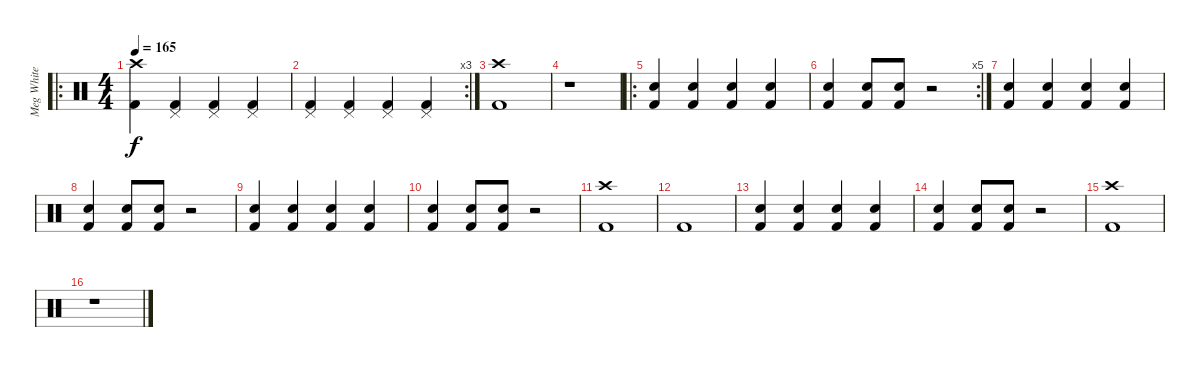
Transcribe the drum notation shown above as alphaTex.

\track ("Meg White" "Meg White") {instrument percussion}
\staff {score}
\articulation defaults
\ro
\ts (4 4)
\tempo 165
\clef neutral
\ks c
("Crash high (hit)" "Kick (hit) 2").4{dy f} ("Pedal Hi-Hat (hit)" "Kick (hit) 2").4 ("Pedal Hi-Hat (hit)" "Kick (hit) 2").4 ("Pedal Hi-Hat (hit)" "Kick (hit) 2").4 |
\rc 3
("Pedal Hi-Hat (hit)" "Kick (hit) 2").4 ("Pedal Hi-Hat (hit)" "Kick (hit) 2").4 ("Pedal Hi-Hat (hit)" "Kick (hit) 2").4 ("Pedal Hi-Hat (hit)" "Kick (hit) 2").4 |
("Crash high (hit)" "Kick (hit) 2").1 |
r.1 |
\ro
("Electric Snare (hit)" "Kick (hit) 2").4 ("Electric Snare (hit)" "Kick (hit) 2").4 ("Electric Snare (hit)" "Kick (hit) 2").4 ("Electric Snare (hit)" "Kick (hit) 2").4 |
\rc 5
("Electric Snare (hit)" "Kick (hit) 2").4 ("Electric Snare (hit)" "Kick (hit) 2").8 ("Electric Snare (hit)" "Kick (hit) 2").8 r.2 |
("Electric Snare (hit)" "Kick (hit) 2").4 ("Electric Snare (hit)" "Kick (hit) 2").4 ("Electric Snare (hit)" "Kick (hit) 2").4 ("Electric Snare (hit)" "Kick (hit) 2").4 |
("Electric Snare (hit)" "Kick (hit) 2").4 ("Electric Snare (hit)" "Kick (hit) 2").8 ("Electric Snare (hit)" "Kick (hit) 2").8 r.2 |
("Electric Snare (hit)" "Kick (hit) 2").4 ("Electric Snare (hit)" "Kick (hit) 2").4 ("Electric Snare (hit)" "Kick (hit) 2").4 ("Electric Snare (hit)" "Kick (hit) 2").4 |
("Electric Snare (hit)" "Kick (hit) 2").4 ("Electric Snare (hit)" "Kick (hit) 2").8 ("Electric Snare (hit)" "Kick (hit) 2").8 r.2 |
("Crash high (hit)" "Kick (hit) 2").1 |
"Kick (hit) 2".1 |
("Electric Snare (hit)" "Kick (hit) 2").4 ("Electric Snare (hit)" "Kick (hit) 2").4 ("Electric Snare (hit)" "Kick (hit) 2").4 ("Electric Snare (hit)" "Kick (hit) 2").4 |
("Electric Snare (hit)" "Kick (hit) 2").4 ("Electric Snare (hit)" "Kick (hit) 2").8 ("Electric Snare (hit)" "Kick (hit) 2").8 r.2 |
("Crash high (hit)" "Kick (hit) 2").1 |
r.1
